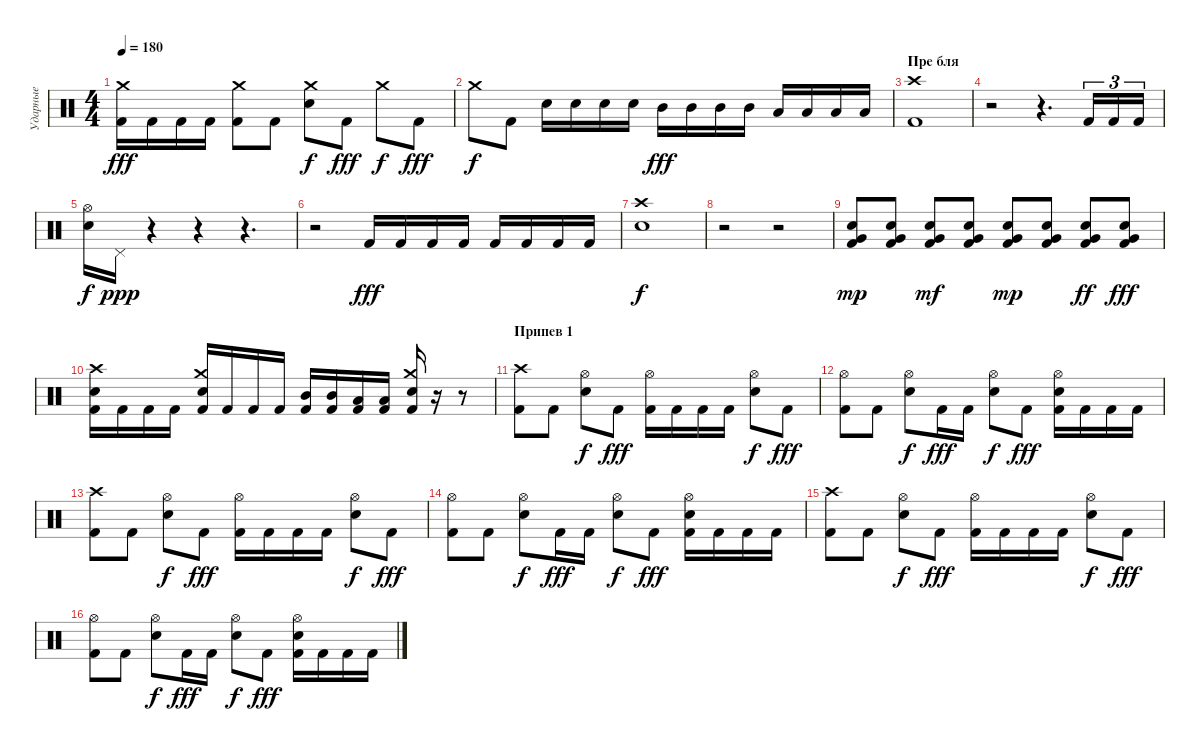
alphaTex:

\track ("Ударные" "Ударные") {instrument percussion}
\staff {score}
\articulation defaults
\ts (4 4)
\tempo 180
\clef neutral
\ks c
("Kick (hit) 2" "Crash medium (hit)").16{dy fff} "Kick (hit) 2".16 "Kick (hit) 2".16 "Kick (hit) 2".16 ("Kick (hit) 2" "Crash medium (hit)").8 "Kick (hit) 2".8 ("Snare (hit) 2" "Crash medium (hit)").8{dy f} "Kick (hit) 2".8{dy fff} "Crash medium (hit)".8{dy f} "Kick (hit) 2".8{dy fff} |
"Crash medium (hit)".8{dy f} "Kick (hit) 2".8 "Snare (hit) 2".16 "Snare (hit) 2".16 "Snare (hit) 2".16 "Snare (hit) 2".16 "Mid Tom (hit)".16{dy fff} "Mid Tom (hit)".16 "Mid Tom (hit)".16 "Mid Tom (hit)".16 "Low Tom (hit)".16 "Low Tom (hit)".16 "Low Tom (hit)".16 "Low Tom (hit)".16 |
\section ("" "Пре бля")
("Kick (hit) 2" "Crash high (hit)").1 |
r.2 r.4{d} "Kick (hit) 2".16{tu (3 2)} "Kick (hit) 2".16{tu (3 2)} "Kick (hit) 2".16{tu (3 2)} |
("Snare (hit) 2" "Hi-Hat (open)").16{dy f} "Pedal Hi-Hat (hit)".16{dy ppp} r.4 r.4 r.4{d} |
r.2 "Kick (hit) 2".16{dy fff} "Kick (hit) 2".16 "Kick (hit) 2".16 "Kick (hit) 2".16 "Kick (hit) 2".16 "Kick (hit) 2".16 "Kick (hit) 2".16 "Kick (hit) 2".16 |
("Snare (hit) 2" "Crash high (hit)").1{dy f} |
r.2 r.2 |
("Kick (hit) 2" "Snare (hit) 2" "Very Low Tom (hit)").8{dy mp} ("Kick (hit) 2" "Snare (hit) 2" "Very Low Tom (hit)").8 ("Kick (hit) 2" "Snare (hit) 2" "Very Low Tom (hit)").8{dy mf} ("Kick (hit) 2" "Snare (hit) 2" "Very Low Tom (hit)").8 ("Kick (hit) 2" "Snare (hit) 2" "Very Low Tom (hit)").8{dy mp} ("Kick (hit) 2" "Snare (hit) 2" "Very Low Tom (hit)").8 ("Kick (hit) 2" "Snare (hit) 2" "Very Low Tom (hit)").8{dy ff} ("Kick (hit) 2" "Snare (hit) 2" "Very Low Tom (hit)").8{dy fff} |
("Kick (hit) 2" "Snare (hit) 2" "Crash high (hit)").16 "Kick (hit) 2".16 "Kick (hit) 2".16 "Kick (hit) 2".16 ("Kick (hit) 2" "Snare (hit) 2" "Crash medium (hit)").16 "Kick (hit) 2".16 "Kick (hit) 2".16 "Kick (hit) 2".16 ("Kick (hit) 2" "Mid Tom (hit)").16 ("Kick (hit) 2" "Mid Tom (hit)").16 ("Kick (hit) 2" "Low Tom (hit)").16 ("Kick (hit) 2" "Low Tom (hit)").16 ("Kick (hit) 2" "Snare (hit) 2" "Crash medium (hit)").16 r.16 r.8 |
\section ("" "Припев 1")
("Kick (hit) 2" "Crash high (hit)").8 "Kick (hit) 2".8 ("Snare (hit) 2" "Hi-Hat (open)").8{dy f} "Kick (hit) 2".8{dy fff} ("Kick (hit) 2" "Hi-Hat (open)").16 "Kick (hit) 2".16 "Kick (hit) 2".16 "Kick (hit) 2".16 ("Snare (hit) 2" "Hi-Hat (open)").8{dy f} "Kick (hit) 2".8{dy fff} |
("Kick (hit) 2" "Hi-Hat (open)").8 "Kick (hit) 2".8 ("Snare (hit) 2" "Hi-Hat (open)").8{dy f} "Kick (hit) 2".16{dy fff} "Kick (hit) 2".16 ("Snare (hit) 2" "Hi-Hat (open)").8{dy f} "Kick (hit) 2".8{dy fff} ("Kick (hit) 2" "Snare (hit) 2" "Hi-Hat (open)").16 "Kick (hit) 2".16 "Kick (hit) 2".16 "Kick (hit) 2".16 |
("Kick (hit) 2" "Crash high (hit)").8 "Kick (hit) 2".8 ("Snare (hit) 2" "Hi-Hat (open)").8{dy f} "Kick (hit) 2".8{dy fff} ("Kick (hit) 2" "Hi-Hat (open)").16 "Kick (hit) 2".16 "Kick (hit) 2".16 "Kick (hit) 2".16 ("Snare (hit) 2" "Hi-Hat (open)").8{dy f} "Kick (hit) 2".8{dy fff} |
("Kick (hit) 2" "Hi-Hat (open)").8 "Kick (hit) 2".8 ("Snare (hit) 2" "Hi-Hat (open)").8{dy f} "Kick (hit) 2".16{dy fff} "Kick (hit) 2".16 ("Snare (hit) 2" "Hi-Hat (open)").8{dy f} "Kick (hit) 2".8{dy fff} ("Kick (hit) 2" "Snare (hit) 2" "Hi-Hat (open)").16 "Kick (hit) 2".16 "Kick (hit) 2".16 "Kick (hit) 2".16 |
("Kick (hit) 2" "Crash high (hit)").8 "Kick (hit) 2".8 ("Snare (hit) 2" "Hi-Hat (open)").8{dy f} "Kick (hit) 2".8{dy fff} ("Kick (hit) 2" "Hi-Hat (open)").16 "Kick (hit) 2".16 "Kick (hit) 2".16 "Kick (hit) 2".16 ("Snare (hit) 2" "Hi-Hat (open)").8{dy f} "Kick (hit) 2".8{dy fff} |
("Kick (hit) 2" "Hi-Hat (open)").8 "Kick (hit) 2".8 ("Snare (hit) 2" "Hi-Hat (open)").8{dy f} "Kick (hit) 2".16{dy fff} "Kick (hit) 2".16 ("Snare (hit) 2" "Hi-Hat (open)").8{dy f} "Kick (hit) 2".8{dy fff} ("Kick (hit) 2" "Snare (hit) 2" "Hi-Hat (open)").16 "Kick (hit) 2".16 "Kick (hit) 2".16 "Kick (hit) 2".16
